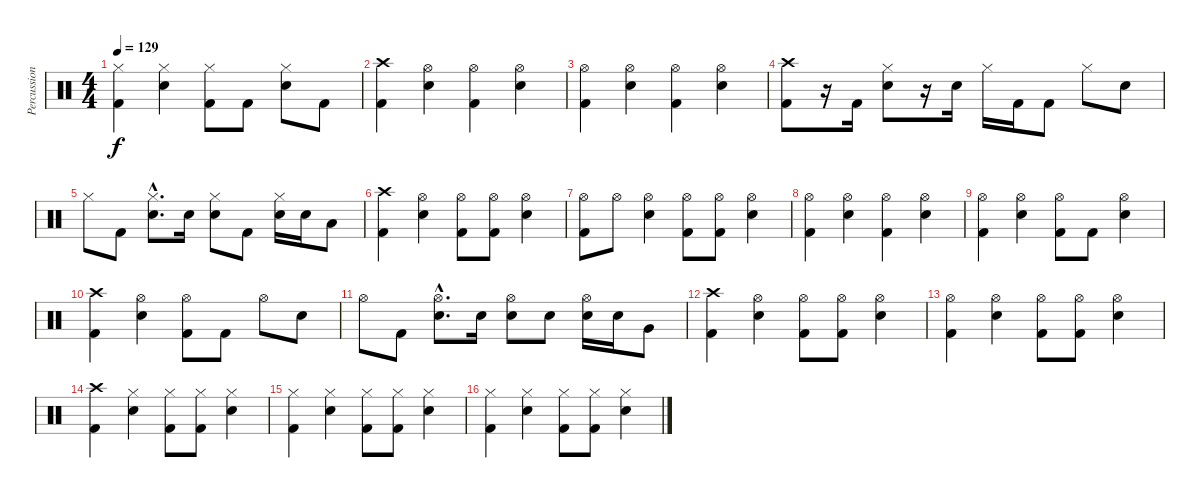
\track ("Percussions" "Percussion") {instrument percussion}
\staff {score}
\articulation defaults
\ts (4 4)
\tempo 129
\clef neutral
\ks c
("Hi-Hat (closed)" "Kick (hit) 2").4{dy f} ("Hi-Hat (closed)" "Electric Snare (hit)").4 ("Hi-Hat (closed)" "Kick (hit) 2").8 "Kick (hit) 2".8 ("Hi-Hat (closed)" "Electric Snare (hit)").8 "Kick (hit) 2".8 |
("Crash high (hit)" "Kick (hit) 2").4 ("Hi-Hat (open)" "Electric Snare (hit)").4 ("Hi-Hat (open)" "Kick (hit) 2").4 ("Hi-Hat (open)" "Electric Snare (hit)").4 |
("Hi-Hat (open)" "Kick (hit) 2").4 ("Hi-Hat (open)" "Electric Snare (hit)").4 ("Hi-Hat (open)" "Kick (hit) 2").4 ("Hi-Hat (open)" "Electric Snare (hit)").4 |
("Crash high (hit)" "Kick (hit) 2").8 r.16 "Kick (hit) 2".16 ("Hi-Hat (closed)" "Electric Snare (hit)").8 r.16 "Electric Snare (hit)".16 "Hi-Hat (closed)".16 "Kick (hit) 2".16 "Kick (hit) 2".8 "Hi-Hat (closed)".8 "Electric Snare (hit)".8 |
"Hi-Hat (closed)".8 "Kick (hit) 2".8 ("Hi-Hat (closed)"{hac} "Electric Snare (hit)"{hac}).8{d} "Electric Snare (hit)".16 ("Hi-Hat (closed)" "Electric Snare (hit)").8 "Kick (hit) 2".8 ("Hi-Hat (closed)" "Electric Snare (hit)").16 "Electric Snare (hit)".16 "Low Tom (hit)".8 |
("Crash high (hit)" "Kick (hit) 2").4 ("Hi-Hat (open)" "Electric Snare (hit)").4 ("Hi-Hat (open)" "Kick (hit) 2").8 ("Hi-Hat (open)" "Kick (hit) 2").8 ("Hi-Hat (open)" "Electric Snare (hit)").4 |
("Hi-Hat (open)" "Kick (hit) 2").8 "Hi-Hat (open)".8 ("Hi-Hat (open)" "Electric Snare (hit)").4 ("Hi-Hat (open)" "Kick (hit) 2").8 ("Hi-Hat (open)" "Kick (hit) 2").8 ("Hi-Hat (open)" "Electric Snare (hit)").4 |
("Hi-Hat (open)" "Kick (hit) 2").4 ("Hi-Hat (open)" "Electric Snare (hit)").4 ("Hi-Hat (open)" "Kick (hit) 2").4 ("Hi-Hat (open)" "Electric Snare (hit)").4 |
("Hi-Hat (open)" "Kick (hit) 2").4 ("Hi-Hat (open)" "Electric Snare (hit)").4 ("Hi-Hat (open)" "Kick (hit) 2").8 "Kick (hit) 2".8 ("Hi-Hat (open)" "Electric Snare (hit)").4 |
("Crash high (hit)" "Kick (hit) 2").4 ("Hi-Hat (open)" "Electric Snare (hit)").4 ("Hi-Hat (open)" "Kick (hit) 2").8 "Kick (hit) 2".8 "Hi-Hat (open)".8 "Electric Snare (hit)".8 |
"Hi-Hat (open)".8 "Kick (hit) 2".8 ("Hi-Hat (open)"{hac} "Electric Snare (hit)"{hac}).8{d} "Electric Snare (hit)".16 ("Hi-Hat (open)" "Electric Snare (hit)").8 "Electric Snare (hit)".8 ("Hi-Hat (open)" "Electric Snare (hit)").16 "Electric Snare (hit)".16 "Very Low Tom (hit)".8 |
("Crash high (hit)" "Kick (hit) 2").4 ("Hi-Hat (open)" "Electric Snare (hit)").4 ("Hi-Hat (open)" "Kick (hit) 2").8 ("Hi-Hat (open)" "Kick (hit) 2").8 ("Hi-Hat (open)" "Electric Snare (hit)").4 |
("Hi-Hat (open)" "Kick (hit) 2").4 ("Hi-Hat (open)" "Electric Snare (hit)").4 ("Hi-Hat (open)" "Kick (hit) 2").8 ("Hi-Hat (open)" "Kick (hit) 2").8 ("Hi-Hat (open)" "Electric Snare (hit)").4 |
("Crash high (hit)" "Kick (hit) 2").4 ("Hi-Hat (closed)" "Electric Snare (hit)").4 ("Hi-Hat (closed)" "Kick (hit) 2").8 ("Hi-Hat (closed)" "Kick (hit) 2").8 ("Hi-Hat (closed)" "Electric Snare (hit)").4 |
("Hi-Hat (closed)" "Kick (hit) 2").4 ("Hi-Hat (closed)" "Electric Snare (hit)").4 ("Hi-Hat (closed)" "Kick (hit) 2").8 ("Hi-Hat (closed)" "Kick (hit) 2").8 ("Hi-Hat (closed)" "Electric Snare (hit)").4 |
("Hi-Hat (closed)" "Kick (hit) 2").4 ("Hi-Hat (closed)" "Electric Snare (hit)").4 ("Hi-Hat (closed)" "Kick (hit) 2").8 ("Hi-Hat (closed)" "Kick (hit) 2").8 ("Hi-Hat (closed)" "Electric Snare (hit)").4
